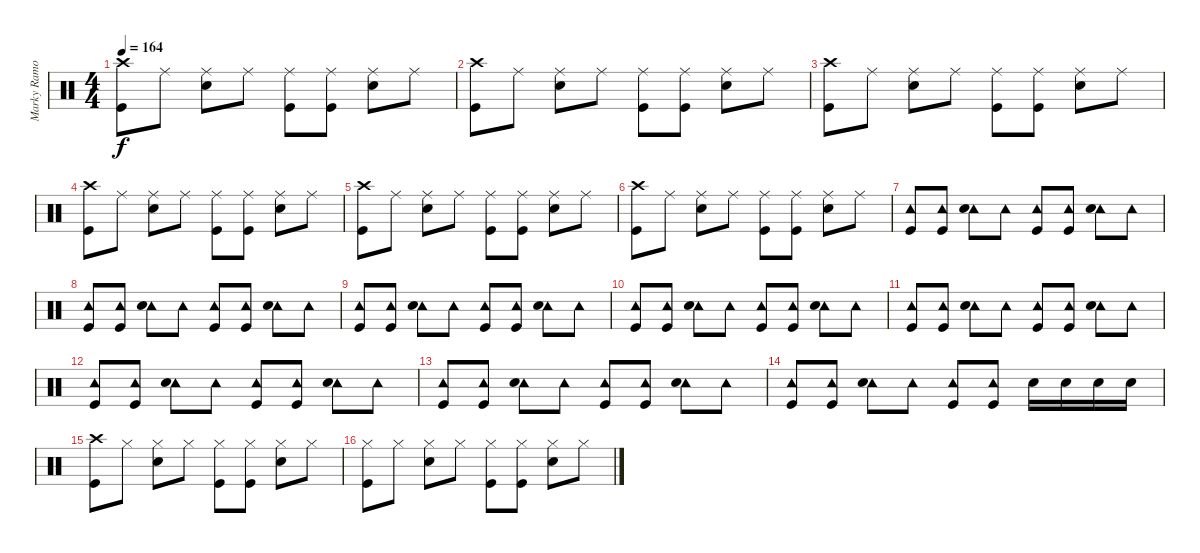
\track ("Marky Ramone (Drums)" "Marky Ramo") {instrument percussion}
\staff {score}
\articulation defaults
\ts (4 4)
\tempo 164
\clef neutral
\ks c
("Crash high (hit)" "Kick (hit)").8{dy f} "Ride (middle)".8 ("Ride (middle)" "Snare (hit) 2").8 "Ride (middle)".8 ("Ride (middle)" "Kick (hit)").8 ("Ride (middle)" "Kick (hit)").8 ("Ride (middle)" "Snare (hit) 2").8 "Ride (middle)".8 |
("Crash high (hit)" "Kick (hit)").8 "Ride (middle)".8 ("Ride (middle)" "Snare (hit) 2").8 "Ride (middle)".8 ("Ride (middle)" "Kick (hit)").8 ("Ride (middle)" "Kick (hit)").8 ("Ride (middle)" "Snare (hit) 2").8 "Ride (middle)".8 |
("Crash high (hit)" "Kick (hit)").8 "Ride (middle)".8 ("Ride (middle)" "Snare (hit) 2").8 "Ride (middle)".8 ("Ride (middle)" "Kick (hit)").8 ("Ride (middle)" "Kick (hit)").8 ("Ride (middle)" "Snare (hit) 2").8 "Ride (middle)".8 |
("Crash high (hit)" "Kick (hit)").8 "Ride (middle)".8 ("Ride (middle)" "Snare (hit) 2").8 "Ride (middle)".8 ("Ride (middle)" "Kick (hit)").8 ("Ride (middle)" "Kick (hit)").8 ("Ride (middle)" "Snare (hit) 2").8 "Ride (middle)".8 |
("Crash high (hit)" "Kick (hit)").8 "Ride (middle)".8 ("Ride (middle)" "Snare (hit) 2").8 "Ride (middle)".8 ("Ride (middle)" "Kick (hit)").8 ("Ride (middle)" "Kick (hit)").8 ("Ride (middle)" "Snare (hit) 2").8 "Ride (middle)".8 |
("Crash high (hit)" "Kick (hit)").8 "Ride (middle)".8 ("Ride (middle)" "Snare (hit) 2").8 "Ride (middle)".8 ("Ride (middle)" "Kick (hit)").8 ("Ride (middle)" "Kick (hit)").8 ("Ride (middle)" "Snare (hit) 2").8 "Ride (middle)".8 |
("Tambourine (hit)" "Kick (hit)").8 ("Tambourine (hit)" "Kick (hit)").8 ("Tambourine (hit)" "Snare (hit) 2").8 "Tambourine (hit)".8 ("Tambourine (hit)" "Kick (hit)").8 ("Tambourine (hit)" "Kick (hit)").8 ("Tambourine (hit)" "Snare (hit) 2").8 "Tambourine (hit)".8 |
("Tambourine (hit)" "Kick (hit)").8 ("Tambourine (hit)" "Kick (hit)").8 ("Tambourine (hit)" "Snare (hit) 2").8 "Tambourine (hit)".8 ("Tambourine (hit)" "Kick (hit)").8 ("Tambourine (hit)" "Kick (hit)").8 ("Tambourine (hit)" "Snare (hit) 2").8 "Tambourine (hit)".8 |
("Tambourine (hit)" "Kick (hit)").8 ("Tambourine (hit)" "Kick (hit)").8 ("Tambourine (hit)" "Snare (hit) 2").8 "Tambourine (hit)".8 ("Tambourine (hit)" "Kick (hit)").8 ("Tambourine (hit)" "Kick (hit)").8 ("Tambourine (hit)" "Snare (hit) 2").8 "Tambourine (hit)".8 |
("Tambourine (hit)" "Kick (hit)").8 ("Tambourine (hit)" "Kick (hit)").8 ("Tambourine (hit)" "Snare (hit) 2").8 "Tambourine (hit)".8 ("Tambourine (hit)" "Kick (hit)").8 ("Tambourine (hit)" "Kick (hit)").8 ("Tambourine (hit)" "Snare (hit) 2").8 "Tambourine (hit)".8 |
("Tambourine (hit)" "Kick (hit)").8 ("Tambourine (hit)" "Kick (hit)").8 ("Tambourine (hit)" "Snare (hit) 2").8 "Tambourine (hit)".8 ("Tambourine (hit)" "Kick (hit)").8 ("Tambourine (hit)" "Kick (hit)").8 ("Tambourine (hit)" "Snare (hit) 2").8 "Tambourine (hit)".8 |
("Tambourine (hit)" "Kick (hit)").8 ("Tambourine (hit)" "Kick (hit)").8 ("Tambourine (hit)" "Snare (hit) 2").8 "Tambourine (hit)".8 ("Tambourine (hit)" "Kick (hit)").8 ("Tambourine (hit)" "Kick (hit)").8 ("Tambourine (hit)" "Snare (hit) 2").8 "Tambourine (hit)".8 |
("Tambourine (hit)" "Kick (hit)").8 ("Tambourine (hit)" "Kick (hit)").8 ("Tambourine (hit)" "Snare (hit) 2").8 "Tambourine (hit)".8 ("Tambourine (hit)" "Kick (hit)").8 ("Tambourine (hit)" "Kick (hit)").8 ("Tambourine (hit)" "Snare (hit) 2").8 "Tambourine (hit)".8 |
("Tambourine (hit)" "Kick (hit)").8 ("Tambourine (hit)" "Kick (hit)").8 ("Tambourine (hit)" "Snare (hit) 2").8 "Tambourine (hit)".8 ("Tambourine (hit)" "Kick (hit)").8 ("Tambourine (hit)" "Kick (hit)").8 "Snare (hit) 2".16 "Snare (hit) 2".16 "Snare (hit) 2".16 "Snare (hit) 2".16 |
("Crash high (hit)" "Kick (hit)").8 "Hi-Hat (closed)".8 ("Hi-Hat (closed)" "Snare (hit) 2").8 "Hi-Hat (closed)".8 ("Hi-Hat (closed)" "Kick (hit)").8 ("Hi-Hat (closed)" "Kick (hit)").8 ("Hi-Hat (closed)" "Snare (hit) 2").8 "Hi-Hat (closed)".8 |
("Hi-Hat (closed)" "Kick (hit)").8 "Hi-Hat (closed)".8 ("Hi-Hat (closed)" "Snare (hit) 2").8 "Hi-Hat (closed)".8 ("Hi-Hat (closed)" "Kick (hit)").8 ("Hi-Hat (closed)" "Kick (hit)").8 ("Hi-Hat (closed)" "Snare (hit) 2").8 "Hi-Hat (closed)".8
